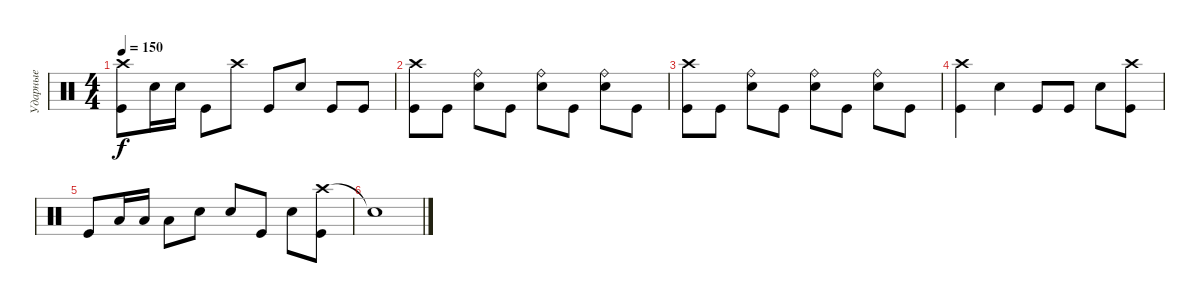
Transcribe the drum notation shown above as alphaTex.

\track ("Ударные" "Ударные") {instrument percussion}
\staff {score}
\articulation defaults
\ts (4 4)
\tempo 150
\clef neutral
\ks c
("Crash high (hit)" "Kick (hit)").8{dy f} "Electric Snare (hit)".16 "Electric Snare (hit)".16 "Kick (hit)".8 "Crash high (hit)".8 "Kick (hit)".8 "Electric Snare (hit)".8 "Kick (hit)".8 "Kick (hit)".8 |
("Crash high (hit)" "Kick (hit)").8 "Kick (hit)".8 ("Ride (bell)" "Electric Snare (hit)").8 "Kick (hit)".8 ("Ride (bell)" "Electric Snare (hit)").8 "Kick (hit)".8 ("Ride (bell)" "Electric Snare (hit)").8 "Kick (hit)".8 |
("Crash high (hit)" "Kick (hit)").8 "Kick (hit)".8 ("Ride (bell)" "Electric Snare (hit)").8 "Kick (hit)".8 ("Ride (bell)" "Electric Snare (hit)").8 "Kick (hit)".8 ("Ride (bell)" "Electric Snare (hit)").8 "Kick (hit)".8 |
("Crash high (hit)" "Kick (hit)").4 "Electric Snare (hit)".4 "Kick (hit)".8 "Kick (hit)".8 "Electric Snare (hit)".8 ("Crash high (hit)" "Kick (hit)").8 |
"Kick (hit)".8 "Low Tom (hit)".16 "Low Tom (hit)".16 "Low Tom (hit)".8 "Electric Snare (hit)".8 "Electric Snare (hit)".8 "Kick (hit)".8 "Electric Snare (hit)".8 ("Crash high (hit)" "Kick (hit)").8 |
"Snare (hit)"{t}.1
